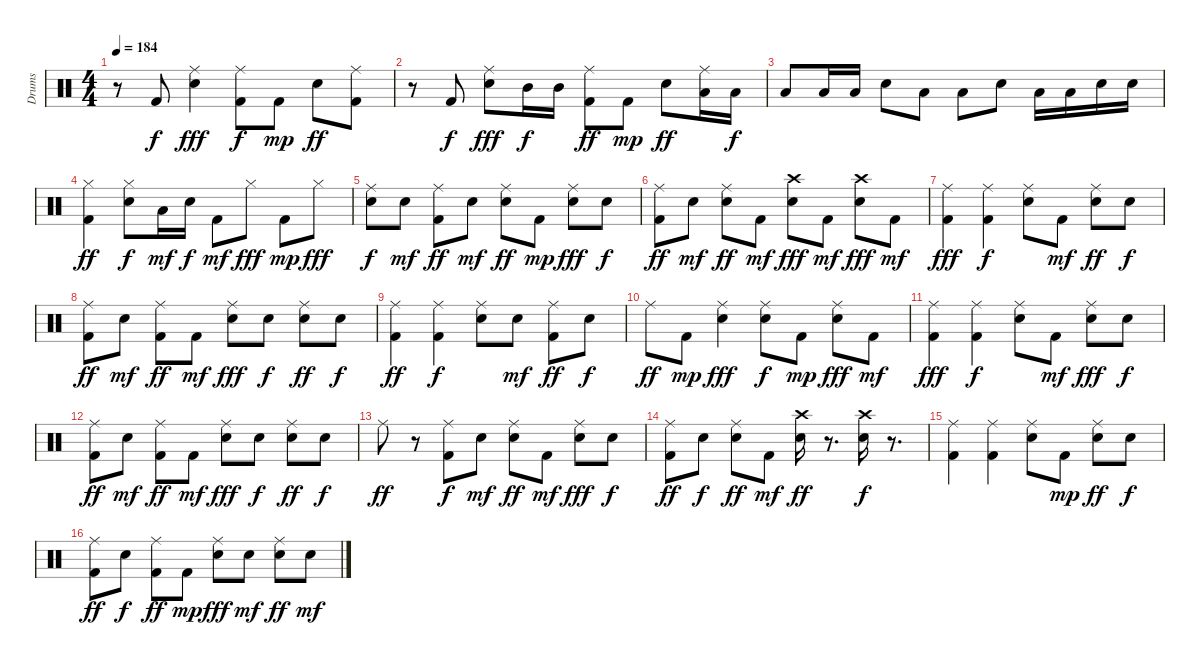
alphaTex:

\track ("Drums" "Drums") {instrument percussion}
\staff {score}
\articulation defaults
\ts (4 4)
\tempo 184
\clef neutral
\ks c
r.8{dy ff} "Kick (hit) 2".8{dy f} ("Snare (hit) 2" "Ride (middle)").4{dy fff} ("Kick (hit) 2" "Ride (middle)").8{dy f} "Kick (hit) 2".8{dy mp} "Snare (hit) 2".8{dy ff} ("Kick (hit) 2" "Ride (middle)").8 |
r.8 "Kick (hit) 2".8{dy f} ("Snare (hit) 2" "Ride (middle)").8{dy fff} "Mid Tom (hit)".16{dy f} "Mid Tom (hit)".16 ("Kick (hit) 2" "Ride (middle)").8{dy ff} "Kick (hit) 2".8{dy mp} "Snare (hit) 2".8{dy ff} ("Low Tom (hit)" "Ride (middle)").16 "Low Tom (hit)".16{dy f} |
"Low Tom (hit)".8 "Low Tom (hit)".16 "Low Tom (hit)".16 "Snare (hit) 2".8 "Low Tom (hit)".8 "Low Tom (hit)".8 "Snare (hit) 2".8 "Low Tom (hit)".16 "Low Tom (hit)".16 "Snare (hit) 2".16 "Snare (hit) 2".16 |
("Kick (hit) 2" "Hi-Hat (closed)").4{dy ff} ("Snare (hit) 2" "Hi-Hat (closed)").8{dy f} "Low Tom (hit)".16{dy mf} "Snare (hit) 2".16{dy f} "Kick (hit) 2".8{dy mf} "Hi-Hat (closed)".8{dy fff} "Kick (hit) 2".8{dy mp} "Hi-Hat (closed)".8{dy fff} |
("Snare (hit) 2" "Ride (middle)").8{dy f} "Snare (hit) 2".8{dy mf} ("Kick (hit) 2" "Ride (middle)").8{dy ff} "Snare (hit) 2".8{dy mf} ("Snare (hit) 2" "Ride (middle)").8{dy ff} "Kick (hit) 2".8{dy mp} ("Snare (hit) 2" "Ride (middle)").8{dy fff} "Snare (hit) 2".8{dy f} |
("Kick (hit) 2" "Ride (middle)").8{dy ff} "Snare (hit) 2".8{dy mf} ("Snare (hit) 2" "Ride (middle)").8{dy ff} "Kick (hit) 2".8{dy mf} ("Snare (hit) 2" "Crash high (hit)").8{dy fff} "Kick (hit) 2".8{dy mf} ("Snare (hit) 2" "Crash high (hit)").8{dy fff} "Kick (hit) 2".8{dy mf} |
("Kick (hit) 2" "Ride (middle)").4{dy fff} ("Kick (hit) 2" "Ride (middle)").4{dy f} ("Snare (hit) 2" "Ride (middle)").8 "Kick (hit) 2".8{dy mf} ("Snare (hit) 2" "Ride (middle)").8{dy ff} "Snare (hit) 2".8{dy f} |
("Kick (hit) 2" "Ride (middle)").8{dy ff} "Snare (hit) 2".8{dy mf} ("Kick (hit) 2" "Ride (middle)").8{dy ff} "Kick (hit) 2".8{dy mf} ("Snare (hit) 2" "Ride (middle)").8{dy fff} "Snare (hit) 2".8{dy f} ("Snare (hit) 2" "Ride (middle)").8{dy ff} "Snare (hit) 2".8{dy f} |
("Kick (hit) 2" "Ride (middle)").4{dy ff} ("Kick (hit) 2" "Ride (middle)").4{dy f} ("Snare (hit) 2" "Ride (middle)").8 "Snare (hit) 2".8{dy mf} ("Kick (hit) 2" "Ride (middle)").8{dy ff} "Snare (hit) 2".8{dy f} |
"Ride (middle)".8{dy ff} "Kick (hit) 2".8{dy mp} ("Snare (hit) 2" "Ride (middle)").4{dy fff} ("Snare (hit) 2" "Ride (middle)").8{dy f} "Kick (hit) 2".8{dy mp} ("Snare (hit) 2" "Ride (middle)").8{dy fff} "Kick (hit) 2".8{dy mf} |
("Kick (hit) 2" "Ride (middle)").4{dy fff} ("Kick (hit) 2" "Ride (middle)").4{dy f} ("Snare (hit) 2" "Ride (middle)").8 "Kick (hit) 2".8{dy mf} ("Snare (hit) 2" "Ride (middle)").8{dy fff} "Snare (hit) 2".8{dy f} |
("Kick (hit) 2" "Ride (middle)").8{dy ff} "Snare (hit) 2".8{dy mf} ("Kick (hit) 2" "Ride (middle)").8{dy ff} "Kick (hit) 2".8{dy mf} ("Snare (hit) 2" "Ride (middle)").8{dy fff} "Snare (hit) 2".8{dy f} ("Snare (hit) 2" "Ride (middle)").8{dy ff} "Snare (hit) 2".8{dy f} |
"Ride (middle)".8{dy ff} r.8 ("Kick (hit) 2" "Ride (middle)").8{dy f} "Snare (hit) 2".8{dy mf} ("Snare (hit) 2" "Ride (middle)").8{dy ff} "Kick (hit) 2".8{dy mf} ("Snare (hit) 2" "Ride (middle)").8{dy fff} "Snare (hit) 2".8{dy f} |
("Kick (hit) 2" "Ride (middle)").8{dy ff} "Snare (hit) 2".8{dy f} ("Snare (hit) 2" "Ride (middle)").8{dy ff} "Kick (hit) 2".8{dy mf} ("Snare (hit) 2" "Crash high (hit)").16{dy ff} r.8{d} ("Snare (hit) 2" "Crash high (hit)").16{dy f} r.8{d} |
("Kick (hit) 2" "Ride (middle)").4 ("Kick (hit) 2" "Ride (middle)").4 ("Snare (hit) 2" "Ride (middle)").8 "Kick (hit) 2".8{dy mp} ("Snare (hit) 2" "Ride (middle)").8{dy ff} "Snare (hit) 2".8{dy f} |
("Kick (hit) 2" "Ride (middle)").8{dy ff} "Snare (hit) 2".8{dy f} ("Kick (hit) 2" "Ride (middle)").8{dy ff} "Kick (hit) 2".8{dy mp} ("Snare (hit) 2" "Ride (middle)").8{dy fff} "Snare (hit) 2".8{dy mf} ("Snare (hit) 2" "Ride (middle)").8{dy ff} "Snare (hit) 2".8{dy mf}
